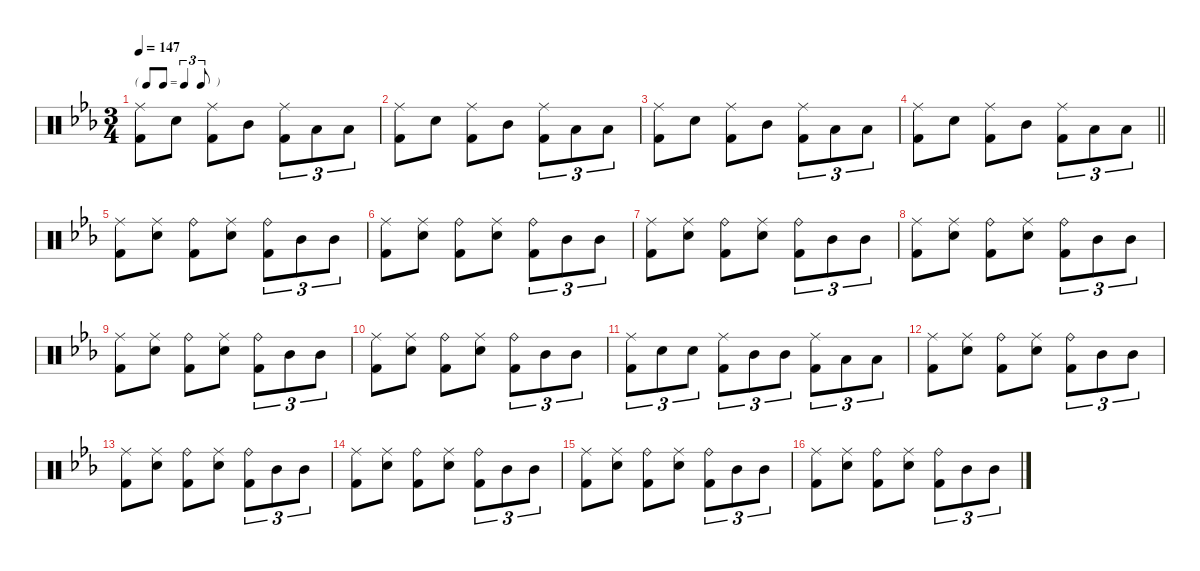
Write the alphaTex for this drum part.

\defaultSystemsLayout 4
\hideDynamics
\bracketExtendMode nobrackets
\singleTrackTrackNamePolicy hidden
\multiTrackTrackNamePolicy hidden
\firstSystemTrackNameMode fullname
\firstSystemTrackNameOrientation horizontal
\otherSystemsTrackNameOrientation horizontal
\track ("Percussion" "drm.") {defaultSystemsLayout 8 instrument percussion}
\staff {score}
\articulation defaults
\ts (3 4)
\tf triplet8th
\tempo 147
\clef neutral
\ks eb
("Ride (middle)"{acc forcenatural} "Kick (hit) 2"{acc forcenatural}).8{dy f beam Down} "Snare (hit) 2"{acc forcenatural}.8{beam Down} ("Ride (middle)"{acc forcenatural} "Kick (hit) 2"{acc forcenatural}).8{beam Down} "Mid Tom (hit)"{acc forcenatural}.8{beam Down} ("Ride (middle)"{acc forcenatural} "Kick (hit) 2"{acc forcenatural}).8{tu (3 2) beam Down} "Low Floor Tom (hit)"{acc forcenatural}.8{tu (3 2) beam Down} "Low Floor Tom (hit)"{acc forcenatural}.8{tu (3 2) beam Down} |
("Ride (middle)"{acc forcenatural} "Kick (hit) 2"{acc forcenatural}).8{beam Down} "Snare (hit) 2"{acc forcenatural}.8{beam Down} ("Ride (middle)"{acc forcenatural} "Kick (hit) 2"{acc forcenatural}).8{beam Down} "Mid Tom (hit)"{acc forcenatural}.8{beam Down} ("Ride (middle)"{acc forcenatural} "Kick (hit) 2"{acc forcenatural}).8{tu (3 2) beam Down} "Low Floor Tom (hit)"{acc forcenatural}.8{tu (3 2) beam Down} "Low Floor Tom (hit)"{acc forcenatural}.8{tu (3 2) beam Down} |
("Ride (middle)"{acc forcenatural} "Kick (hit) 2"{acc forcenatural}).8{beam Down} "Snare (hit) 2"{acc forcenatural}.8{beam Down} ("Ride (middle)"{acc forcenatural} "Kick (hit) 2"{acc forcenatural}).8{beam Down} "Mid Tom (hit)"{acc forcenatural}.8{beam Down} ("Ride (middle)"{acc forcenatural} "Kick (hit) 2"{acc forcenatural}).8{tu (3 2) beam Down} "Low Floor Tom (hit)"{acc forcenatural}.8{tu (3 2) beam Down} "Low Floor Tom (hit)"{acc forcenatural}.8{tu (3 2) beam Down} |
\barLineRight lightlight
("Ride (middle)"{acc forcenatural} "Kick (hit) 2"{acc forcenatural}).8{beam Down} "Snare (hit) 2"{acc forcenatural}.8{beam Down} ("Ride (middle)"{acc forcenatural} "Kick (hit) 2"{acc forcenatural}).8{beam Down} "Mid Tom (hit)"{acc forcenatural}.8{beam Down} ("Ride (middle)"{acc forcenatural} "Kick (hit) 2"{acc forcenatural}).8{tu (3 2) beam Down} "Low Floor Tom (hit)"{acc forcenatural}.8{tu (3 2) beam Down} "Low Floor Tom (hit)"{acc forcenatural}.8{tu (3 2) beam Down} |
("Ride (middle)"{acc forcenatural} "Kick (hit) 2"{acc forcenatural}).8{beam Down} ("Ride (middle)"{acc forcenatural} "Snare (hit) 2"{acc forcenatural}).8{beam Down} ("Ride (bell)"{acc forcenatural} "Kick (hit) 2"{acc forcenatural}).8{beam Down} ("Ride (middle)"{acc forcenatural} "Snare (hit) 2"{acc forcenatural}).8{beam Down} ("Ride (bell)"{acc forcenatural} "Kick (hit) 2"{acc forcenatural}).8{tu (3 2) beam Down} "Mid Tom (hit)"{acc forcenatural}.8{tu (3 2) beam Down} "Mid Tom (hit)"{acc forcenatural}.8{tu (3 2) beam Down} |
("Ride (middle)"{acc forcenatural} "Kick (hit) 2"{acc forcenatural}).8{beam Down} ("Ride (middle)"{acc forcenatural} "Snare (hit) 2"{acc forcenatural}).8{beam Down} ("Ride (bell)"{acc forcenatural} "Kick (hit) 2"{acc forcenatural}).8{beam Down} ("Ride (middle)"{acc forcenatural} "Snare (hit) 2"{acc forcenatural}).8{beam Down} ("Ride (bell)"{acc forcenatural} "Kick (hit) 2"{acc forcenatural}).8{tu (3 2) beam Down} "Mid Tom (hit)"{acc forcenatural}.8{tu (3 2) beam Down} "Mid Tom (hit)"{acc forcenatural}.8{tu (3 2) beam Down} |
("Ride (middle)"{acc forcenatural} "Kick (hit) 2"{acc forcenatural}).8{beam Down} ("Ride (middle)"{acc forcenatural} "Snare (hit) 2"{acc forcenatural}).8{beam Down} ("Ride (bell)"{acc forcenatural} "Kick (hit) 2"{acc forcenatural}).8{beam Down} ("Ride (middle)"{acc forcenatural} "Snare (hit) 2"{acc forcenatural}).8{beam Down} ("Ride (bell)"{acc forcenatural} "Kick (hit) 2"{acc forcenatural}).8{tu (3 2) beam Down} "Mid Tom (hit)"{acc forcenatural}.8{tu (3 2) beam Down} "Mid Tom (hit)"{acc forcenatural}.8{tu (3 2) beam Down} |
("Ride (middle)"{acc forcenatural} "Kick (hit) 2"{acc forcenatural}).8{beam Down} ("Ride (middle)"{acc forcenatural} "Snare (hit) 2"{acc forcenatural}).8{beam Down} ("Ride (bell)"{acc forcenatural} "Kick (hit) 2"{acc forcenatural}).8{beam Down} ("Ride (middle)"{acc forcenatural} "Snare (hit) 2"{acc forcenatural}).8{beam Down} ("Ride (bell)"{acc forcenatural} "Kick (hit) 2"{acc forcenatural}).8{tu (3 2) beam Down} "Mid Tom (hit)"{acc forcenatural}.8{tu (3 2) beam Down} "Mid Tom (hit)"{acc forcenatural}.8{tu (3 2) beam Down} |
("Ride (middle)"{acc forcenatural} "Kick (hit) 2"{acc forcenatural}).8{beam Down} ("Ride (middle)"{acc forcenatural} "Snare (hit) 2"{acc forcenatural}).8{beam Down} ("Ride (bell)"{acc forcenatural} "Kick (hit) 2"{acc forcenatural}).8{beam Down} ("Ride (middle)"{acc forcenatural} "Snare (hit) 2"{acc forcenatural}).8{beam Down} ("Ride (bell)"{acc forcenatural} "Kick (hit) 2"{acc forcenatural}).8{tu (3 2) beam Down} "Mid Tom (hit)"{acc forcenatural}.8{tu (3 2) beam Down} "Mid Tom (hit)"{acc forcenatural}.8{tu (3 2) beam Down} |
("Ride (middle)"{acc forcenatural} "Kick (hit) 2"{acc forcenatural}).8{beam Down} ("Ride (middle)"{acc forcenatural} "Snare (hit) 2"{acc forcenatural}).8{beam Down} ("Ride (bell)"{acc forcenatural} "Kick (hit) 2"{acc forcenatural}).8{beam Down} ("Ride (middle)"{acc forcenatural} "Snare (hit) 2"{acc forcenatural}).8{beam Down} ("Ride (bell)"{acc forcenatural} "Kick (hit) 2"{acc forcenatural}).8{tu (3 2) beam Down} "Mid Tom (hit)"{acc forcenatural}.8{tu (3 2) beam Down} "Mid Tom (hit)"{acc forcenatural}.8{tu (3 2) beam Down} |
("Ride (middle)"{acc forcenatural} "Kick (hit) 2"{acc forcenatural}).8{tu (3 2) beam Down} "Snare (hit) 2"{acc forcenatural}.8{tu (3 2) beam Down} "Snare (hit) 2"{acc forcenatural}.8{tu (3 2) beam Down} ("Ride (middle)"{acc forcenatural} "Kick (hit) 2"{acc forcenatural}).8{tu (3 2) beam Down} "Mid Tom (hit)"{acc forcenatural}.8{tu (3 2) beam Down} "Mid Tom (hit)"{acc forcenatural}.8{tu (3 2) beam Down} ("Ride (middle)"{acc forcenatural} "Kick (hit) 2"{acc forcenatural}).8{tu (3 2) beam Down} "Low Tom (hit)"{acc forcenatural}.8{tu (3 2) beam Down} "Low Tom (hit)"{acc forcenatural}.8{tu (3 2) beam Down} |
("Ride (middle)"{acc forcenatural} "Kick (hit) 2"{acc forcenatural}).8{beam Down} ("Ride (middle)"{acc forcenatural} "Snare (hit) 2"{acc forcenatural}).8{beam Down} ("Ride (bell)"{acc forcenatural} "Kick (hit) 2"{acc forcenatural}).8{beam Down} ("Ride (middle)"{acc forcenatural} "Snare (hit) 2"{acc forcenatural}).8{beam Down} ("Ride (bell)"{acc forcenatural} "Kick (hit) 2"{acc forcenatural}).8{tu (3 2) beam Down} "Mid Tom (hit)"{acc forcenatural}.8{tu (3 2) beam Down} "Mid Tom (hit)"{acc forcenatural}.8{tu (3 2) beam Down} |
("Ride (middle)"{acc forcenatural} "Kick (hit) 2"{acc forcenatural}).8{beam Down} ("Ride (middle)"{acc forcenatural} "Snare (hit) 2"{acc forcenatural}).8{beam Down} ("Ride (bell)"{acc forcenatural} "Kick (hit) 2"{acc forcenatural}).8{beam Down} ("Ride (middle)"{acc forcenatural} "Snare (hit) 2"{acc forcenatural}).8{beam Down} ("Ride (bell)"{acc forcenatural} "Kick (hit) 2"{acc forcenatural}).8{tu (3 2) beam Down} "Mid Tom (hit)"{acc forcenatural}.8{tu (3 2) beam Down} "Mid Tom (hit)"{acc forcenatural}.8{tu (3 2) beam Down} |
("Ride (middle)"{acc forcenatural} "Kick (hit) 2"{acc forcenatural}).8{beam Down} ("Ride (middle)"{acc forcenatural} "Snare (hit) 2"{acc forcenatural}).8{beam Down} ("Ride (bell)"{acc forcenatural} "Kick (hit) 2"{acc forcenatural}).8{beam Down} ("Ride (middle)"{acc forcenatural} "Snare (hit) 2"{acc forcenatural}).8{beam Down} ("Ride (bell)"{acc forcenatural} "Kick (hit) 2"{acc forcenatural}).8{tu (3 2) beam Down} "Mid Tom (hit)"{acc forcenatural}.8{tu (3 2) beam Down} "Mid Tom (hit)"{acc forcenatural}.8{tu (3 2) beam Down} |
("Ride (middle)"{acc forcenatural} "Kick (hit) 2"{acc forcenatural}).8{beam Down} ("Ride (middle)"{acc forcenatural} "Snare (hit) 2"{acc forcenatural}).8{beam Down} ("Ride (bell)"{acc forcenatural} "Kick (hit) 2"{acc forcenatural}).8{beam Down} ("Ride (middle)"{acc forcenatural} "Snare (hit) 2"{acc forcenatural}).8{beam Down} ("Ride (bell)"{acc forcenatural} "Kick (hit) 2"{acc forcenatural}).8{tu (3 2) beam Down} "Mid Tom (hit)"{acc forcenatural}.8{tu (3 2) beam Down} "Mid Tom (hit)"{acc forcenatural}.8{tu (3 2) beam Down} |
("Ride (middle)"{acc forcenatural} "Kick (hit) 2"{acc forcenatural}).8{beam Down} ("Ride (middle)"{acc forcenatural} "Snare (hit) 2"{acc forcenatural}).8{beam Down} ("Ride (bell)"{acc forcenatural} "Kick (hit) 2"{acc forcenatural}).8{beam Down} ("Ride (middle)"{acc forcenatural} "Snare (hit) 2"{acc forcenatural}).8{beam Down} ("Ride (bell)"{acc forcenatural} "Kick (hit) 2"{acc forcenatural}).8{tu (3 2) beam Down} "Mid Tom (hit)"{acc forcenatural}.8{tu (3 2) beam Down} "Mid Tom (hit)"{acc forcenatural}.8{tu (3 2) beam Down}
